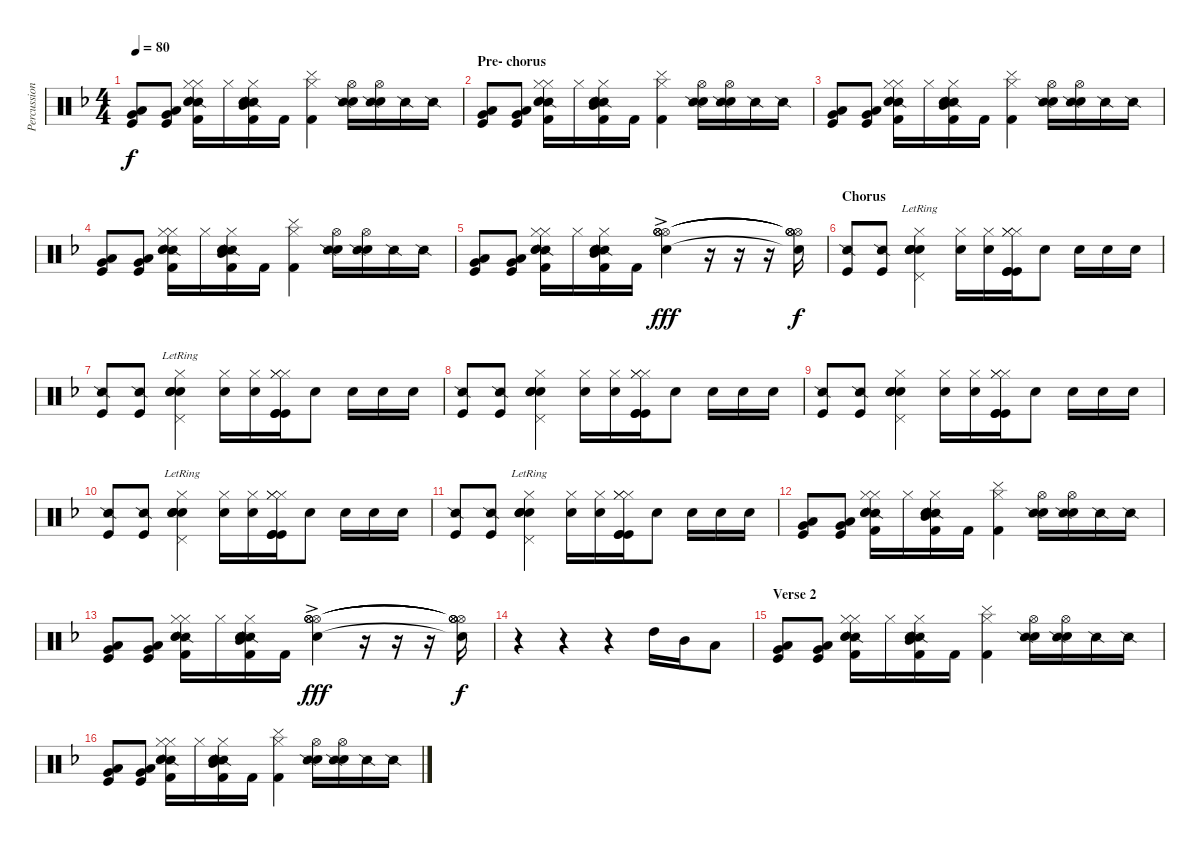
\track ("Percussion" "Percussion") {instrument percussion}
\staff {score}
\articulation defaults
\ts (4 4)
\tempo 80
\clef neutral
\ks dminor
("Kick (hit)" "Low Floor Tom (hit)" "Very Low Tom (hit)").8{dy f} ("Kick (hit)" "Low Floor Tom (hit)" "Very Low Tom (hit)").8 ("Kick (hit) 2" "Hi-Hat (closed)" "Snare (side stick) 2" "Snare (hit) 2" "Electric Snare (hit)" "Hi-Hat (closed)").16 "Hi-Hat (closed)".16 ("Kick (hit) 2" "Hi-Hat (closed)" "Snare (side stick) 2" "Snare (hit) 2" "Electric Snare (hit)" "Mid Tom (hit)").16 "Kick (hit) 2".16 ("Kick (hit) 2" "Hi-Hat (closed)" "Cymbal (hit)").4 ("Electric Snare (hit)" "Hi-Hat (open)" "Snare (side stick) 2").16 ("Electric Snare (hit)" "Hi-Hat (open)" "Snare (side stick) 2").16 "Snare (side stick) 2".16 "Snare (side stick) 2".16 |
\section ("" "Pre- chorus")
("Kick (hit)" "Low Floor Tom (hit)" "Very Low Tom (hit)").8 ("Kick (hit)" "Low Floor Tom (hit)" "Very Low Tom (hit)").8 ("Kick (hit) 2" "Hi-Hat (closed)" "Snare (side stick) 2" "Snare (hit) 2" "Electric Snare (hit)" "Hi-Hat (closed)").16 "Hi-Hat (closed)".16 ("Kick (hit) 2" "Hi-Hat (closed)" "Snare (side stick) 2" "Snare (hit) 2" "Electric Snare (hit)" "Mid Tom (hit)").16 "Kick (hit) 2".16 ("Kick (hit) 2" "Hi-Hat (closed)" "Cymbal (hit)").4 ("Electric Snare (hit)" "Hi-Hat (open)" "Snare (side stick) 2").16 ("Electric Snare (hit)" "Hi-Hat (open)" "Snare (side stick) 2").16 "Snare (side stick) 2".16 "Snare (side stick) 2".16 |
("Kick (hit)" "Low Floor Tom (hit)" "Very Low Tom (hit)").8 ("Kick (hit)" "Low Floor Tom (hit)" "Very Low Tom (hit)").8 ("Kick (hit) 2" "Hi-Hat (closed)" "Snare (side stick) 2" "Snare (hit) 2" "Electric Snare (hit)" "Hi-Hat (closed)").16 "Hi-Hat (closed)".16 ("Kick (hit) 2" "Hi-Hat (closed)" "Snare (side stick) 2" "Snare (hit) 2" "Electric Snare (hit)" "Mid Tom (hit)").16 "Kick (hit) 2".16 ("Kick (hit) 2" "Hi-Hat (closed)" "Cymbal (hit)").4 ("Electric Snare (hit)" "Hi-Hat (open)" "Snare (side stick) 2").16 ("Electric Snare (hit)" "Hi-Hat (open)" "Snare (side stick) 2").16 "Snare (side stick) 2".16 "Snare (side stick) 2".16 |
("Kick (hit)" "Low Floor Tom (hit)" "Very Low Tom (hit)").8 ("Kick (hit)" "Low Floor Tom (hit)" "Very Low Tom (hit)").8 ("Kick (hit) 2" "Hi-Hat (closed)" "Snare (side stick) 2" "Snare (hit) 2" "Electric Snare (hit)" "Hi-Hat (closed)").16 "Hi-Hat (closed)".16 ("Kick (hit) 2" "Hi-Hat (closed)" "Snare (side stick) 2" "Snare (hit) 2" "Electric Snare (hit)" "Mid Tom (hit)").16 "Kick (hit) 2".16 ("Kick (hit) 2" "Hi-Hat (closed)" "Cymbal (hit)").4 ("Electric Snare (hit)" "Hi-Hat (open)" "Snare (side stick) 2").16 ("Electric Snare (hit)" "Hi-Hat (open)" "Snare (side stick) 2").16 "Snare (side stick) 2".16 "Snare (side stick) 2".16 |
("Kick (hit)" "Low Floor Tom (hit)" "Very Low Tom (hit)").8 ("Kick (hit)" "Low Floor Tom (hit)" "Very Low Tom (hit)").8 ("Kick (hit) 2" "Hi-Hat (closed)" "Snare (side stick) 2" "Snare (hit) 2" "Electric Snare (hit)" "Hi-Hat (closed)").16 "Hi-Hat (closed)".16 ("Kick (hit) 2" "Hi-Hat (closed)" "Snare (side stick) 2" "Snare (hit) 2" "Electric Snare (hit)" "Mid Tom (hit)").16 "Kick (hit) 2".16 ("Electric Snare (hit)"{ac} "Hi-Hat (open)"{ac} "Hi-Hat (open)"{ac} "Hi-Hat (open)"{ac} "Hi-Hat (open)"{ac}).4{dy fff} r.16 r.16 r.16 ("Electric Snare (hit)"{t} "Hi-Hat (open)"{t} "Hi-Hat (open)"{t} "Hi-Hat (open)"{t} "Hi-Hat (open)"{t}).16{dy f} |
\section ("" "Chorus")
("Kick (hit)" "Snare (side stick) 2").8{volume 13} ("Kick (hit)" "Snare (side stick) 2").8 ("Snare (hit) 2"{lr} "Snare (hit) 2"{lr} "Pedal Hi-Hat (hit)"{lr} "Hi-Hat (closed)"{lr} "Electric Snare (hit)"{lr} "Hand Clap (hit)"{lr}).4 ("Hi-Hat (closed)" "Electric Snare (hit)").16 ("Hi-Hat (closed)" "Electric Snare (hit)").16 ("Hi-Hat (closed)" "Hi-Hat (closed)" "Hi-Hat (closed)" "Kick (hit)" "Kick (hit)" "Kick (hit)").16 "Hand Clap (hit)".8 "Snare (hit) 2".16 "Snare (hit) 2".16 "Snare (hit) 2".16 |
("Kick (hit)" "Snare (side stick) 2").8{volume 14} ("Kick (hit)" "Snare (side stick) 2").8 ("Snare (hit) 2"{lr} "Snare (hit) 2"{lr} "Pedal Hi-Hat (hit)"{lr} "Hi-Hat (closed)"{lr} "Electric Snare (hit)"{lr} "Hand Clap (hit)"{lr}).4 ("Hi-Hat (closed)" "Electric Snare (hit)").16 ("Hi-Hat (closed)" "Electric Snare (hit)").16 ("Hi-Hat (closed)" "Hi-Hat (closed)" "Hi-Hat (closed)" "Kick (hit)" "Kick (hit)" "Kick (hit)").16 "Hand Clap (hit)".8 "Snare (hit) 2".16 "Snare (hit) 2".16 "Snare (hit) 2".16 |
("Kick (hit)" "Snare (side stick) 2").8{volume 14} ("Kick (hit)" "Snare (side stick) 2").8 ("Snare (hit) 2" "Snare (hit) 2" "Pedal Hi-Hat (hit)" "Hi-Hat (closed)" "Electric Snare (hit)" "Hand Clap (hit)").4 ("Hi-Hat (closed)" "Electric Snare (hit)").16 ("Hi-Hat (closed)" "Electric Snare (hit)").16 ("Hi-Hat (closed)" "Hi-Hat (closed)" "Hi-Hat (closed)" "Kick (hit)" "Kick (hit)" "Kick (hit)").16 "Hand Clap (hit)".8 "Snare (hit) 2".16 "Snare (hit) 2".16 "Snare (hit) 2".16 |
("Kick (hit)" "Snare (side stick) 2").8{volume 14} ("Kick (hit)" "Snare (side stick) 2").8 ("Snare (hit) 2" "Snare (hit) 2" "Pedal Hi-Hat (hit)" "Hi-Hat (closed)" "Electric Snare (hit)" "Hand Clap (hit)").4 ("Hi-Hat (closed)" "Electric Snare (hit)").16 ("Hi-Hat (closed)" "Electric Snare (hit)").16 ("Hi-Hat (closed)" "Hi-Hat (closed)" "Hi-Hat (closed)" "Kick (hit)" "Kick (hit)" "Kick (hit)").16 "Hand Clap (hit)".8 "Snare (hit) 2".16 "Snare (hit) 2".16 "Snare (hit) 2".16 |
("Kick (hit)" "Snare (side stick) 2").8{volume 14} ("Kick (hit)" "Snare (side stick) 2").8 ("Snare (hit) 2"{lr} "Snare (hit) 2"{lr} "Pedal Hi-Hat (hit)"{lr} "Hi-Hat (closed)"{lr} "Electric Snare (hit)"{lr} "Hand Clap (hit)"{lr}).4 ("Hi-Hat (closed)" "Electric Snare (hit)").16 ("Hi-Hat (closed)" "Electric Snare (hit)").16 ("Hi-Hat (closed)" "Hi-Hat (closed)" "Hi-Hat (closed)" "Kick (hit)" "Kick (hit)" "Kick (hit)").16 "Hand Clap (hit)".8 "Snare (hit) 2".16 "Snare (hit) 2".16 "Snare (hit) 2".16 |
("Kick (hit)" "Snare (side stick) 2").8{volume 14} ("Kick (hit)" "Snare (side stick) 2").8 ("Snare (hit) 2"{lr} "Snare (hit) 2"{lr} "Pedal Hi-Hat (hit)"{lr} "Hi-Hat (closed)"{lr} "Electric Snare (hit)"{lr} "Hand Clap (hit)"{lr}).4 ("Hi-Hat (closed)" "Electric Snare (hit)").16 ("Hi-Hat (closed)" "Electric Snare (hit)").16 ("Hi-Hat (closed)" "Hi-Hat (closed)" "Hi-Hat (closed)" "Kick (hit)" "Kick (hit)" "Kick (hit)").16 "Hand Clap (hit)".8 "Snare (hit) 2".16 "Snare (hit) 2".16 "Snare (hit) 2".16 |
("Kick (hit)" "Low Floor Tom (hit)" "Very Low Tom (hit)").8{volume 14} ("Kick (hit)" "Low Floor Tom (hit)" "Very Low Tom (hit)").8 ("Kick (hit) 2" "Hi-Hat (closed)" "Snare (side stick) 2" "Snare (hit) 2" "Electric Snare (hit)" "Hi-Hat (closed)").16 "Hi-Hat (closed)".16 ("Kick (hit) 2" "Hi-Hat (closed)" "Snare (side stick) 2" "Snare (hit) 2" "Electric Snare (hit)" "Mid Tom (hit)").16 "Kick (hit) 2".16 ("Kick (hit) 2" "Hi-Hat (closed)" "Cymbal (hit)").4 ("Electric Snare (hit)" "Hi-Hat (open)" "Snare (side stick) 2").16 ("Electric Snare (hit)" "Hi-Hat (open)" "Snare (side stick) 2").16 "Snare (side stick) 2".16 "Snare (side stick) 2".16 |
("Kick (hit)" "Low Floor Tom (hit)" "Very Low Tom (hit)").8{volume 14} ("Kick (hit)" "Low Floor Tom (hit)" "Very Low Tom (hit)").8 ("Kick (hit) 2" "Hi-Hat (closed)" "Snare (side stick) 2" "Snare (hit) 2" "Electric Snare (hit)" "Hi-Hat (closed)").16 "Hi-Hat (closed)".16 ("Kick (hit) 2" "Hi-Hat (closed)" "Snare (side stick) 2" "Snare (hit) 2" "Electric Snare (hit)" "Mid Tom (hit)").16 "Kick (hit) 2".16 ("Electric Snare (hit)"{ac} "Hi-Hat (open)"{ac} "Hi-Hat (open)"{ac} "Hi-Hat (open)"{ac} "Hi-Hat (open)"{ac}).4{dy fff} r.16 r.16 r.16 ("Electric Snare (hit)"{t} "Hi-Hat (open)"{t} "Hi-Hat (open)"{t} "Hi-Hat (open)"{t} "Hi-Hat (open)"{t}).16{dy f} |
r.4 r.4{volume 14} r.4 "High Tom (hit)".16 "Mid Tom (hit)".16 "Low Tom (hit)".8 |
\section ("" "Verse 2")
("Kick (hit)" "Low Floor Tom (hit)" "Very Low Tom (hit)").8 ("Kick (hit)" "Low Floor Tom (hit)" "Very Low Tom (hit)").8 ("Kick (hit) 2" "Hi-Hat (closed)" "Snare (side stick) 2" "Snare (hit) 2" "Electric Snare (hit)" "Hi-Hat (closed)").16 "Hi-Hat (closed)".16 ("Kick (hit) 2" "Hi-Hat (closed)" "Snare (side stick) 2" "Snare (hit) 2" "Electric Snare (hit)" "Mid Tom (hit)").16 "Kick (hit) 2".16 ("Kick (hit) 2" "Hi-Hat (closed)" "Cymbal (hit)").4 ("Electric Snare (hit)" "Hi-Hat (open)" "Snare (side stick) 2").16 ("Electric Snare (hit)" "Hi-Hat (open)" "Snare (side stick) 2").16 "Snare (side stick) 2".16 "Snare (side stick) 2".16 |
("Kick (hit)" "Low Floor Tom (hit)" "Very Low Tom (hit)").8 ("Kick (hit)" "Low Floor Tom (hit)" "Very Low Tom (hit)").8 ("Kick (hit) 2" "Hi-Hat (closed)" "Snare (side stick) 2" "Snare (hit) 2" "Electric Snare (hit)" "Hi-Hat (closed)").16 "Hi-Hat (closed)".16 ("Kick (hit) 2" "Hi-Hat (closed)" "Snare (side stick) 2" "Snare (hit) 2" "Electric Snare (hit)" "Mid Tom (hit)").16 "Kick (hit) 2".16 ("Kick (hit) 2" "Hi-Hat (closed)" "Cymbal (hit)").4 ("Electric Snare (hit)" "Hi-Hat (open)" "Snare (side stick) 2").16 ("Electric Snare (hit)" "Hi-Hat (open)" "Snare (side stick) 2").16 "Snare (side stick) 2".16 "Snare (side stick) 2".16
